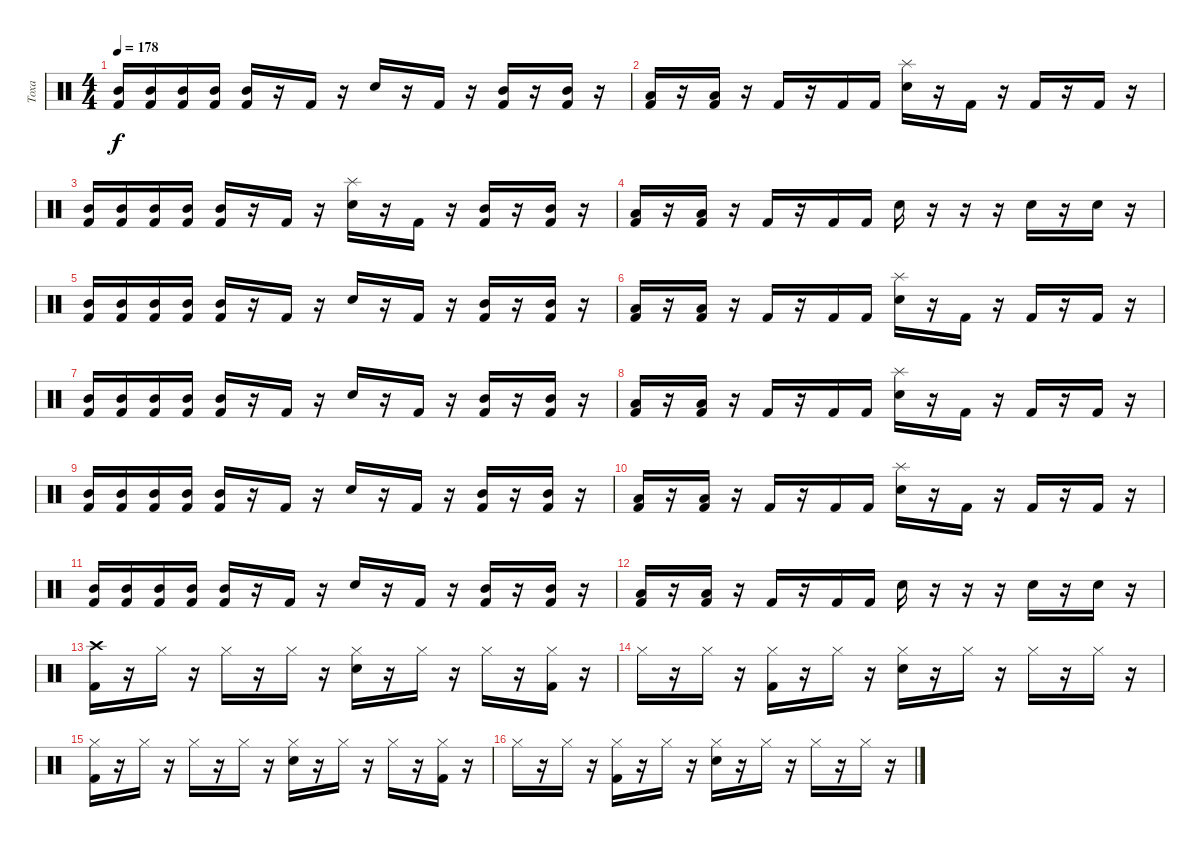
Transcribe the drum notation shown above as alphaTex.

\track ("Тоха" "Тоха") {instrument percussion}
\staff {score}
\articulation defaults
\ts (4 4)
\tempo 178
\clef neutral
\ks c
("Mid Tom (hit)" "Kick (hit) 2").16{dy f} ("Mid Tom (hit)" "Kick (hit) 2").16 ("Mid Tom (hit)" "Kick (hit) 2").16 ("Mid Tom (hit)" "Kick (hit) 2").16 ("Mid Tom (hit)" "Kick (hit) 2").16 r.16 "Kick (hit) 2".16 r.16 "Electric Snare (hit)".16 r.16 "Kick (hit) 2".16 r.16 ("Mid Tom (hit)" "Kick (hit) 2").16 r.16 ("Mid Tom (hit)" "Kick (hit) 2").16 r.16 |
("Low Tom (hit)" "Kick (hit) 2").16 r.16 ("Low Tom (hit)" "Kick (hit) 2").16 r.16 "Kick (hit) 2".16 r.16 "Kick (hit) 2".16 "Kick (hit) 2".16 ("Splash (hit)" "Electric Snare (hit)").16 r.16 "Kick (hit) 2".16 r.16 "Kick (hit) 2".16 r.16 "Kick (hit) 2".16 r.16 |
("Mid Tom (hit)" "Kick (hit) 2").16 ("Mid Tom (hit)" "Kick (hit) 2").16 ("Mid Tom (hit)" "Kick (hit) 2").16 ("Mid Tom (hit)" "Kick (hit) 2").16 ("Mid Tom (hit)" "Kick (hit) 2").16 r.16 "Kick (hit) 2".16 r.16 ("Splash (hit)" "Electric Snare (hit)").16 r.16 "Kick (hit) 2".16 r.16 ("Mid Tom (hit)" "Kick (hit) 2").16 r.16 ("Mid Tom (hit)" "Kick (hit) 2").16 r.16 |
("Low Tom (hit)" "Kick (hit) 2").16 r.16 ("Low Tom (hit)" "Kick (hit) 2").16 r.16 "Kick (hit) 2".16 r.16 "Kick (hit) 2".16 "Kick (hit) 2".16 "Electric Snare (hit)".16 r.16 r.16 r.16 "Electric Snare (hit)".16 r.16 "Electric Snare (hit)".16 r.16 |
("Mid Tom (hit)" "Kick (hit) 2").16 ("Mid Tom (hit)" "Kick (hit) 2").16 ("Mid Tom (hit)" "Kick (hit) 2").16 ("Mid Tom (hit)" "Kick (hit) 2").16 ("Mid Tom (hit)" "Kick (hit) 2").16 r.16 "Kick (hit) 2".16 r.16 "Electric Snare (hit)".16 r.16 "Kick (hit) 2".16 r.16 ("Mid Tom (hit)" "Kick (hit) 2").16 r.16 ("Mid Tom (hit)" "Kick (hit) 2").16 r.16 |
("Low Tom (hit)" "Kick (hit) 2").16 r.16 ("Low Tom (hit)" "Kick (hit) 2").16 r.16 "Kick (hit) 2".16 r.16 "Kick (hit) 2".16 "Kick (hit) 2".16 ("Splash (hit)" "Electric Snare (hit)").16 r.16 "Kick (hit) 2".16 r.16 "Kick (hit) 2".16 r.16 "Kick (hit) 2".16 r.16 |
("Mid Tom (hit)" "Kick (hit) 2").16 ("Mid Tom (hit)" "Kick (hit) 2").16 ("Mid Tom (hit)" "Kick (hit) 2").16 ("Mid Tom (hit)" "Kick (hit) 2").16 ("Mid Tom (hit)" "Kick (hit) 2").16 r.16 "Kick (hit) 2".16 r.16 "Electric Snare (hit)".16 r.16 "Kick (hit) 2".16 r.16 ("Mid Tom (hit)" "Kick (hit) 2").16 r.16 ("Mid Tom (hit)" "Kick (hit) 2").16 r.16 |
("Low Tom (hit)" "Kick (hit) 2").16 r.16 ("Low Tom (hit)" "Kick (hit) 2").16 r.16 "Kick (hit) 2".16 r.16 "Kick (hit) 2".16 "Kick (hit) 2".16 ("Splash (hit)" "Electric Snare (hit)").16 r.16 "Kick (hit) 2".16 r.16 "Kick (hit) 2".16 r.16 "Kick (hit) 2".16 r.16 |
("Mid Tom (hit)" "Kick (hit) 2").16 ("Mid Tom (hit)" "Kick (hit) 2").16 ("Mid Tom (hit)" "Kick (hit) 2").16 ("Mid Tom (hit)" "Kick (hit) 2").16 ("Mid Tom (hit)" "Kick (hit) 2").16 r.16 "Kick (hit) 2".16 r.16 "Electric Snare (hit)".16 r.16 "Kick (hit) 2".16 r.16 ("Mid Tom (hit)" "Kick (hit) 2").16 r.16 ("Mid Tom (hit)" "Kick (hit) 2").16 r.16 |
("Low Tom (hit)" "Kick (hit) 2").16 r.16 ("Low Tom (hit)" "Kick (hit) 2").16 r.16 "Kick (hit) 2".16 r.16 "Kick (hit) 2".16 "Kick (hit) 2".16 ("Splash (hit)" "Electric Snare (hit)").16 r.16 "Kick (hit) 2".16 r.16 "Kick (hit) 2".16 r.16 "Kick (hit) 2".16 r.16 |
("Mid Tom (hit)" "Kick (hit) 2").16 ("Mid Tom (hit)" "Kick (hit) 2").16 ("Mid Tom (hit)" "Kick (hit) 2").16 ("Mid Tom (hit)" "Kick (hit) 2").16 ("Mid Tom (hit)" "Kick (hit) 2").16 r.16 "Kick (hit) 2".16 r.16 "Electric Snare (hit)".16 r.16 "Kick (hit) 2".16 r.16 ("Mid Tom (hit)" "Kick (hit) 2").16 r.16 ("Mid Tom (hit)" "Kick (hit) 2").16 r.16 |
("Low Tom (hit)" "Kick (hit) 2").16 r.16 ("Low Tom (hit)" "Kick (hit) 2").16 r.16 "Kick (hit) 2".16 r.16 "Kick (hit) 2".16 "Kick (hit) 2".16 "Electric Snare (hit)".16 r.16 r.16 r.16 "Electric Snare (hit)".16 r.16 "Electric Snare (hit)".16 r.16 |
("Crash high (hit)" "Kick (hit) 2").16 r.16 "Hi-Hat (closed)".16 r.16 "Hi-Hat (closed)".16 r.16 "Hi-Hat (closed)".16 r.16 ("Hi-Hat (closed)" "Electric Snare (hit)").16 r.16 "Hi-Hat (closed)".16 r.16 "Hi-Hat (closed)".16 r.16 ("Hi-Hat (closed)" "Kick (hit) 2").16 r.16 |
"Hi-Hat (closed)".16 r.16 "Hi-Hat (closed)".16 r.16 ("Hi-Hat (closed)" "Kick (hit) 2").16 r.16 "Hi-Hat (closed)".16 r.16 ("Hi-Hat (closed)" "Electric Snare (hit)").16 r.16 "Hi-Hat (closed)".16 r.16 "Hi-Hat (closed)".16 r.16 "Hi-Hat (closed)".16 r.16 |
("Hi-Hat (closed)" "Kick (hit) 2").16 r.16 "Hi-Hat (closed)".16 r.16 "Hi-Hat (closed)".16 r.16 "Hi-Hat (closed)".16 r.16 ("Hi-Hat (closed)" "Electric Snare (hit)").16 r.16 "Hi-Hat (closed)".16 r.16 "Hi-Hat (closed)".16 r.16 ("Hi-Hat (closed)" "Kick (hit) 2").16 r.16 |
"Hi-Hat (closed)".16 r.16 "Hi-Hat (closed)".16 r.16 ("Hi-Hat (closed)" "Kick (hit) 2").16 r.16 "Hi-Hat (closed)".16 r.16 ("Hi-Hat (closed)" "Electric Snare (hit)").16 r.16 "Hi-Hat (closed)".16 r.16 "Hi-Hat (closed)".16 r.16 "Hi-Hat (closed)".16 r.16
